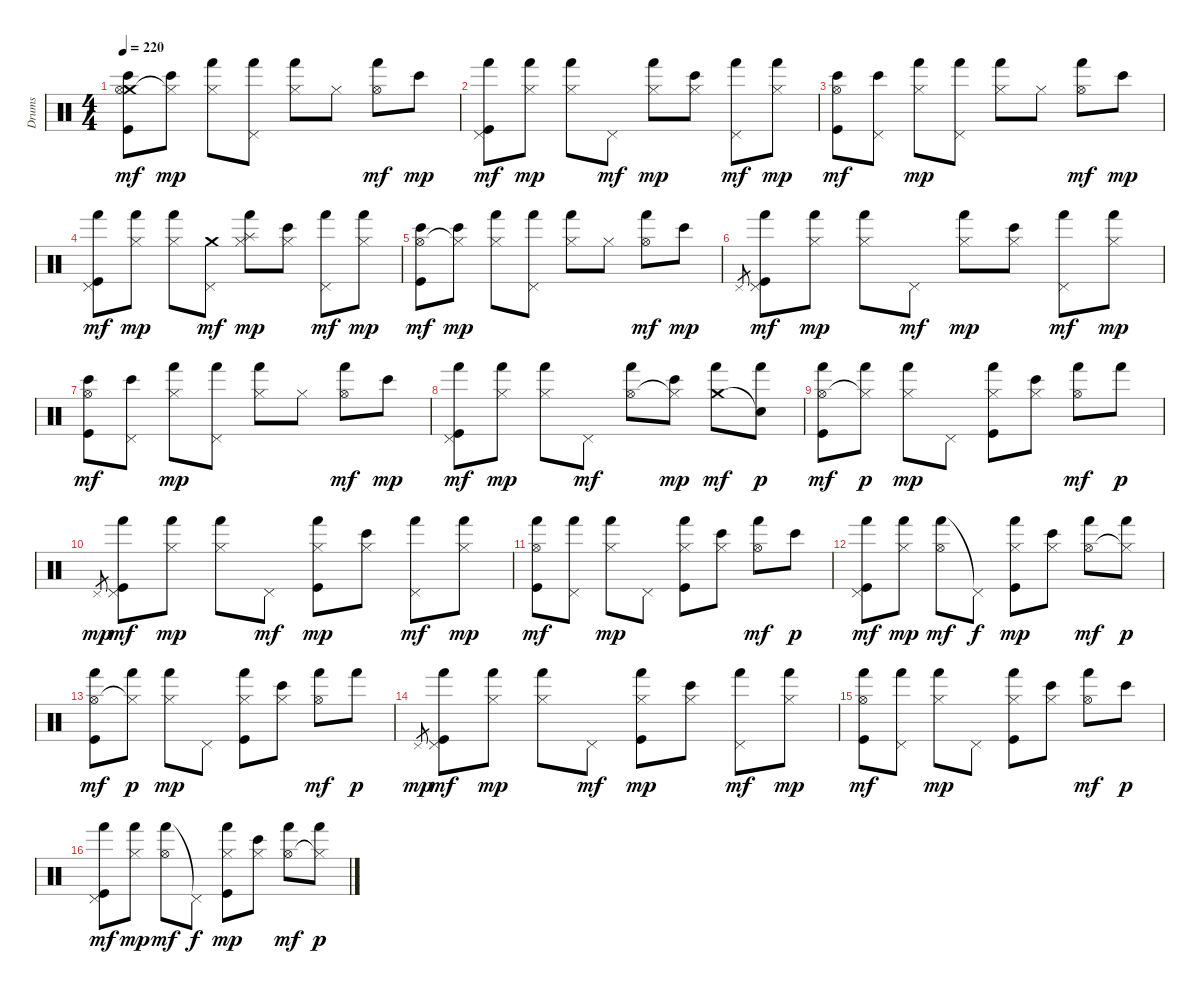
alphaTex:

\track ("Drums" "Drums") {instrument percussion}
\staff {score}
\articulation defaults
\ts (4 4)
\tempo 220
\clef neutral
\ks c
("Bongo High (hit)" "Crash medium (hit)" "Hi-Hat (open)" "Kick (hit)").8{dy mf} ("Bongo High (hit)" "Hi-Hat (closed)"{t}).8{dy mp} ("Hand (hit)" "Hi-Hat (closed)").8 ("Hand (hit)" "Pedal Hi-Hat (hit)").8 ("Hand (hit)" "Hi-Hat (closed)").8 "Hi-Hat (closed)".8 ("Hand (hit)" "Hi-Hat (open)").8{dy mf} "Bongo High (hit)".8{dy mp} |
("Hand (hit)" "Pedal Hi-Hat (hit)" "Kick (hit)").8{dy mf} ("Hand (hit)" "Hi-Hat (closed)").8{dy mp} ("Hand (hit)" "Hi-Hat (closed)").8 "Pedal Hi-Hat (hit)".8{dy mf} ("Hand (hit)" "Hi-Hat (closed)").8{dy mp} ("Bongo High (hit)" "Hi-Hat (closed)").8 ("Hand (hit)" "Pedal Hi-Hat (hit)").8{dy mf} ("Hand (hit)" "Hi-Hat (closed)").8{dy mp} |
("Bongo High (hit)" "Hi-Hat (open)" "Kick (hit)").8{dy mf} ("Bongo High (hit)" "Pedal Hi-Hat (hit)").8 ("Hand (hit)" "Hi-Hat (closed)").8{dy mp} ("Hand (hit)" "Pedal Hi-Hat (hit)").8 ("Hand (hit)" "Hi-Hat (closed)").8 "Hi-Hat (closed)".8 ("Hand (hit)" "Hi-Hat (open)").8{dy mf} "Bongo High (hit)".8{dy mp} |
("Hand (hit)" "Pedal Hi-Hat (hit)" "Kick (hit)").8{dy mf} ("Hand (hit)" "Hi-Hat (closed)").8{dy mp} ("Hand (hit)" "Hi-Hat (closed)").8 ("Crash medium (hit)" "Pedal Hi-Hat (hit)").8{dy mf} ("Hand (hit)" "Splash (hit)" "Hi-Hat (closed)").8{dy mp} ("Bongo High (hit)" "Hi-Hat (closed)").8 ("Hand (hit)" "Pedal Hi-Hat (hit)").8{dy mf} ("Hand (hit)" "Hi-Hat (closed)").8{dy mp} |
("Bongo High (hit)" "Hi-Hat (open)" "Kick (hit)").8{dy mf} ("Bongo High (hit)" "Hi-Hat (closed)"{t}).8{dy mp} ("Hand (hit)" "Hi-Hat (closed)").8 ("Hand (hit)" "Pedal Hi-Hat (hit)").8 ("Hand (hit)" "Hi-Hat (closed)").8 "Hi-Hat (closed)".8 ("Hand (hit)" "Hi-Hat (open)").8{dy mf} "Bongo High (hit)".8{dy mp} |
"Pedal Hi-Hat (hit)".8{gr} ("Hand (hit)" "Pedal Hi-Hat (hit)" "Kick (hit)").8{dy mf} ("Hand (hit)" "Hi-Hat (closed)").8{dy mp} ("Hand (hit)" "Hi-Hat (closed)").8 "Pedal Hi-Hat (hit)".8{dy mf} ("Hand (hit)" "Hi-Hat (closed)").8{dy mp} ("Bongo High (hit)" "Hi-Hat (closed)").8 ("Hand (hit)" "Pedal Hi-Hat (hit)").8{dy mf} ("Hand (hit)" "Hi-Hat (closed)").8{dy mp} |
("Bongo High (hit)" "Hi-Hat (open)" "Kick (hit)").8{dy mf} ("Bongo High (hit)" "Pedal Hi-Hat (hit)").8 ("Hand (hit)" "Hi-Hat (closed)").8{dy mp} ("Hand (hit)" "Pedal Hi-Hat (hit)").8 ("Hand (hit)" "Hi-Hat (closed)").8 "Hi-Hat (closed)".8 ("Hand (hit)" "Hi-Hat (open)").8{dy mf} "Bongo High (hit)".8{dy mp} |
("Hand (hit)" "Pedal Hi-Hat (hit)" "Kick (hit)").8{dy mf} ("Hand (hit)" "Hi-Hat (closed)").8{dy mp} ("Hand (hit)" "Hi-Hat (closed)").8 "Pedal Hi-Hat (hit)".8{dy mf} ("Hand (hit)" "Hi-Hat (open)").8 ("Bongo High (hit)" "Hi-Hat (closed)"{t}).8{dy mp} ("Hand (hit)" "Crash medium (hit)").8{dy mf} ("Hand (hit)" "Snare (hit)"{t}).8{dy p} |
("Hand (hit)" "Hi-Hat (open)" "Kick (hit)").8{dy mf} ("Hand (hit)" "Hi-Hat (closed)"{t}).8{dy p} ("Hand (hit)" "Hi-Hat (closed)").8{dy mp} "Pedal Hi-Hat (hit)".8 ("Hand (hit)" "Hi-Hat (closed)" "Kick (hit)").8 ("Bongo High (hit)" "Hi-Hat (closed)").8 ("Hand (hit)" "Hi-Hat (open)").8{dy mf} "Hand (hit)".8{dy p} |
"Pedal Hi-Hat (hit)".8{gr dy mp} ("Hand (hit)" "Pedal Hi-Hat (hit)" "Kick (hit)").8{dy mf} ("Hand (hit)" "Hi-Hat (closed)").8{dy mp} ("Hand (hit)" "Hi-Hat (closed)").8 "Pedal Hi-Hat (hit)".8{dy mf} ("Hand (hit)" "Hi-Hat (closed)" "Kick (hit)").8{dy mp} ("Bongo High (hit)" "Hi-Hat (closed)").8 ("Hand (hit)" "Pedal Hi-Hat (hit)").8{dy mf} ("Hand (hit)" "Hi-Hat (closed)").8{dy mp} |
("Hand (hit)" "Hi-Hat (open)" "Kick (hit)").8{dy mf} ("Hand (hit)" "Pedal Hi-Hat (hit)").8 ("Hand (hit)" "Hi-Hat (closed)").8{dy mp} "Pedal Hi-Hat (hit)".8 ("Hand (hit)" "Hi-Hat (closed)" "Kick (hit)").8 ("Bongo High (hit)" "Hi-Hat (closed)").8 ("Hand (hit)" "Hi-Hat (open)").8{dy mf} "Bongo High (hit)".8{dy p} |
("Hand (hit)" "Pedal Hi-Hat (hit)" "Kick (hit)").8{dy mf} ("Hand (hit)" "Hi-Hat (closed)").8{dy mp} ("Hand (hit)" "Hi-Hat (open)").8{dy mf} "Pedal Hi-Hat (hit)"{t}.8{dy f} ("Hand (hit)" "Hi-Hat (closed)" "Kick (hit)").8{dy mp} ("Bongo High (hit)" "Hi-Hat (closed)").8 ("Hand (hit)" "Hi-Hat (open)").8{dy mf} ("Hand (hit)" "Hi-Hat (closed)"{t}).8{dy p} |
("Hand (hit)" "Hi-Hat (open)" "Kick (hit)").8{dy mf} ("Hand (hit)" "Hi-Hat (closed)"{t}).8{dy p} ("Hand (hit)" "Hi-Hat (closed)").8{dy mp} "Pedal Hi-Hat (hit)".8 ("Hand (hit)" "Hi-Hat (closed)" "Kick (hit)").8 ("Bongo High (hit)" "Hi-Hat (closed)").8 ("Hand (hit)" "Hi-Hat (open)").8{dy mf} "Hand (hit)".8{dy p} |
"Pedal Hi-Hat (hit)".8{gr dy mp} ("Hand (hit)" "Pedal Hi-Hat (hit)" "Kick (hit)").8{dy mf} ("Hand (hit)" "Hi-Hat (closed)").8{dy mp} ("Hand (hit)" "Hi-Hat (closed)").8 "Pedal Hi-Hat (hit)".8{dy mf} ("Hand (hit)" "Hi-Hat (closed)" "Kick (hit)").8{dy mp} ("Bongo High (hit)" "Hi-Hat (closed)").8 ("Hand (hit)" "Pedal Hi-Hat (hit)").8{dy mf} ("Hand (hit)" "Hi-Hat (closed)").8{dy mp} |
("Hand (hit)" "Hi-Hat (open)" "Kick (hit)").8{dy mf} ("Hand (hit)" "Pedal Hi-Hat (hit)").8 ("Hand (hit)" "Hi-Hat (closed)").8{dy mp} "Pedal Hi-Hat (hit)".8 ("Hand (hit)" "Hi-Hat (closed)" "Kick (hit)").8 ("Bongo High (hit)" "Hi-Hat (closed)").8 ("Hand (hit)" "Hi-Hat (open)").8{dy mf} "Bongo High (hit)".8{dy p} |
("Hand (hit)" "Pedal Hi-Hat (hit)" "Kick (hit)").8{dy mf} ("Hand (hit)" "Hi-Hat (closed)").8{dy mp} ("Hand (hit)" "Hi-Hat (open)").8{dy mf} "Pedal Hi-Hat (hit)"{t}.8{dy f} ("Hand (hit)" "Hi-Hat (closed)" "Kick (hit)").8{dy mp} ("Bongo High (hit)" "Hi-Hat (closed)").8 ("Hand (hit)" "Hi-Hat (open)").8{dy mf} ("Hand (hit)" "Hi-Hat (closed)"{t}).8{dy p}
